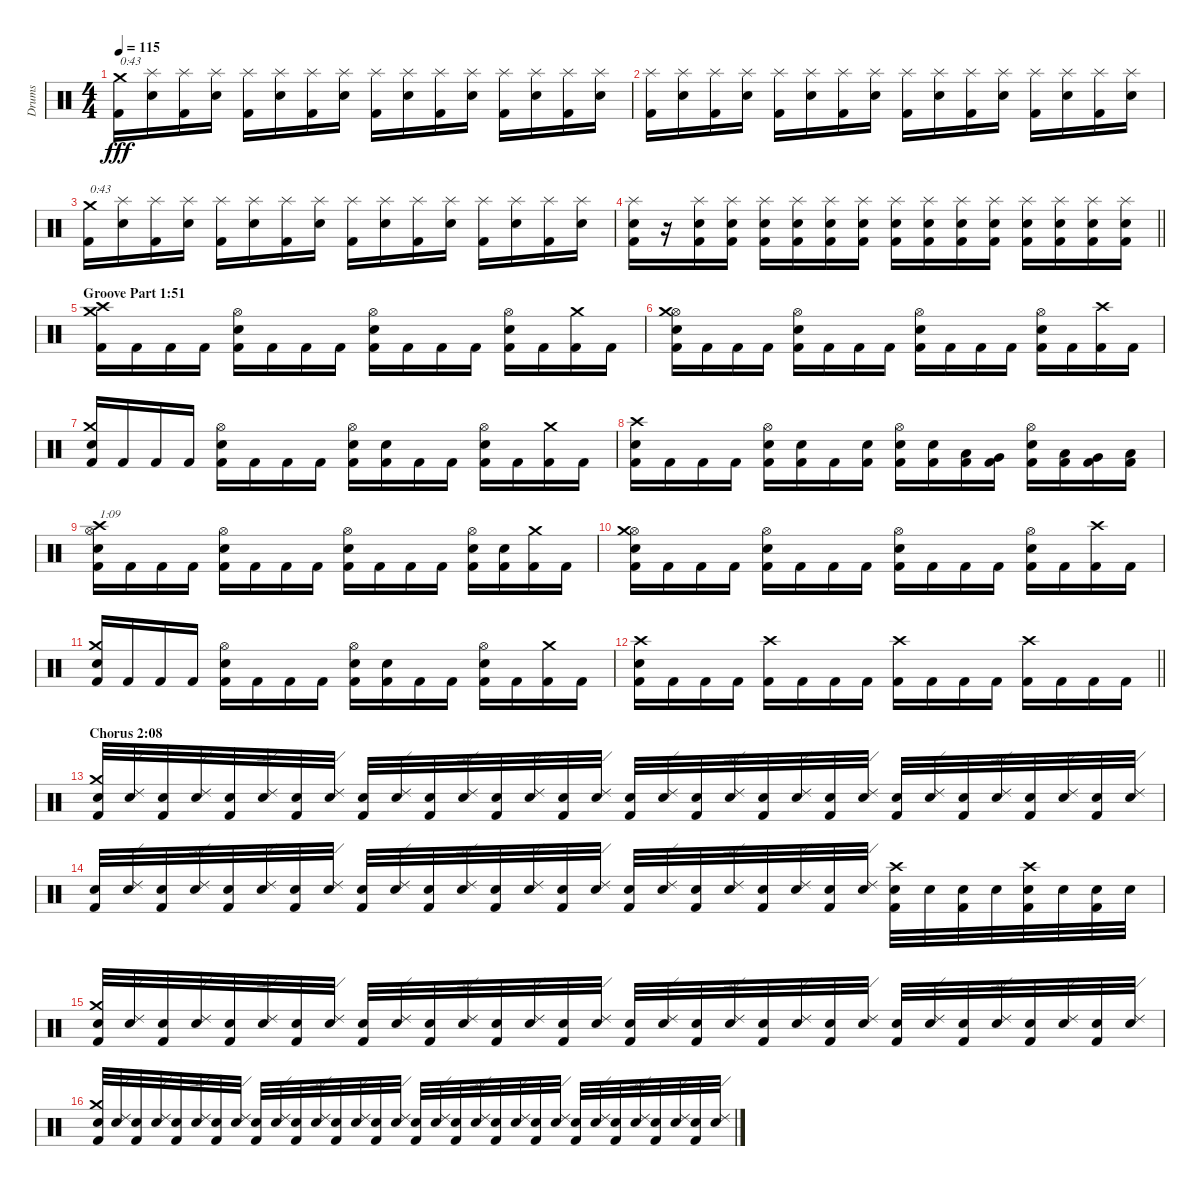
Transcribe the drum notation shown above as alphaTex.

\track ("Drums" "Drums") {instrument percussion}
\staff {score}
\articulation defaults
\ts (4 4)
\tempo 115
\clef neutral
\ks c
("Kick (hit) 2" "Crash medium (hit)").16{txt "0:43" dy fff} ("Electric Snare (hit)" "Splash (hit)").16 ("Kick (hit) 2" "Splash (hit)").16 ("Electric Snare (hit)" "Splash (hit)").16 ("Kick (hit) 2" "Splash (hit)").16 ("Electric Snare (hit)" "Splash (hit)").16 ("Kick (hit) 2" "Splash (hit)").16 ("Electric Snare (hit)" "Splash (hit)").16 ("Kick (hit) 2" "Splash (hit)").16 ("Electric Snare (hit)" "Splash (hit)").16 ("Kick (hit) 2" "Splash (hit)").16 ("Electric Snare (hit)" "Splash (hit)").16 ("Kick (hit) 2" "Splash (hit)").16 ("Electric Snare (hit)" "Splash (hit)").16 ("Kick (hit) 2" "Splash (hit)").16 ("Electric Snare (hit)" "Splash (hit)").16 |
("Kick (hit) 2" "Splash (hit)").16 ("Electric Snare (hit)" "Splash (hit)").16 ("Kick (hit) 2" "Splash (hit)").16 ("Electric Snare (hit)" "Splash (hit)").16 ("Kick (hit) 2" "Splash (hit)").16 ("Electric Snare (hit)" "Splash (hit)").16 ("Kick (hit) 2" "Splash (hit)").16 ("Electric Snare (hit)" "Splash (hit)").16 ("Kick (hit) 2" "Splash (hit)").16 ("Electric Snare (hit)" "Splash (hit)").16 ("Kick (hit) 2" "Splash (hit)").16 ("Electric Snare (hit)" "Splash (hit)").16 ("Kick (hit) 2" "Splash (hit)").16 ("Electric Snare (hit)" "Splash (hit)").16 ("Kick (hit) 2" "Splash (hit)").16 ("Electric Snare (hit)" "Splash (hit)").16 |
("Kick (hit) 2" "Crash medium (hit)").16{txt "0:43"} ("Electric Snare (hit)" "Splash (hit)").16 ("Kick (hit) 2" "Splash (hit)").16 ("Electric Snare (hit)" "Splash (hit)").16 ("Kick (hit) 2" "Splash (hit)").16 ("Electric Snare (hit)" "Splash (hit)").16 ("Kick (hit) 2" "Splash (hit)").16 ("Electric Snare (hit)" "Splash (hit)").16 ("Kick (hit) 2" "Splash (hit)").16 ("Electric Snare (hit)" "Splash (hit)").16 ("Kick (hit) 2" "Splash (hit)").16 ("Electric Snare (hit)" "Splash (hit)").16 ("Kick (hit) 2" "Splash (hit)").16 ("Electric Snare (hit)" "Splash (hit)").16 ("Kick (hit) 2" "Splash (hit)").16 ("Electric Snare (hit)" "Splash (hit)").16 |
\barLineRight lightlight
("Kick (hit) 2" "Electric Snare (hit)" "Splash (hit)").16 r.16 ("Kick (hit) 2" "Electric Snare (hit)" "Splash (hit)").16 ("Kick (hit) 2" "Electric Snare (hit)" "Splash (hit)").16 ("Kick (hit) 2" "Electric Snare (hit)" "Splash (hit)").16 ("Kick (hit) 2" "Electric Snare (hit)" "Splash (hit)").16 ("Kick (hit) 2" "Electric Snare (hit)" "Splash (hit)").16 ("Kick (hit) 2" "Electric Snare (hit)" "Splash (hit)").16 ("Kick (hit) 2" "Electric Snare (hit)" "Splash (hit)").16 ("Kick (hit) 2" "Electric Snare (hit)" "Splash (hit)").16 ("Kick (hit) 2" "Electric Snare (hit)" "Splash (hit)").16 ("Kick (hit) 2" "Electric Snare (hit)" "Splash (hit)").16 ("Kick (hit) 2" "Electric Snare (hit)" "Splash (hit)").16 ("Kick (hit) 2" "Electric Snare (hit)" "Splash (hit)").16 ("Kick (hit) 2" "Electric Snare (hit)" "Splash (hit)").16 ("Kick (hit) 2" "Electric Snare (hit)" "Splash (hit)").16 |
\section ("" "Groove Part 1:51")
("Kick (hit) 2" "Crash medium (hit)" "Crash high (hit)").16 "Kick (hit) 2".16 "Kick (hit) 2".16 "Kick (hit) 2".16 ("Kick (hit) 2" "Electric Snare (hit)" "Hi-Hat (open)").16 "Kick (hit) 2".16 "Kick (hit) 2".16 "Kick (hit) 2".16 ("Kick (hit) 2" "Electric Snare (hit)" "Hi-Hat (open)").16 "Kick (hit) 2".16 "Kick (hit) 2".16 "Kick (hit) 2".16 ("Kick (hit) 2" "Electric Snare (hit)" "Hi-Hat (open)").16 "Kick (hit) 2".16 ("Kick (hit) 2" "Crash medium (hit)").16 "Kick (hit) 2".16 |
("Kick (hit) 2" "Electric Snare (hit)" "Hi-Hat (open)" "Crash medium (hit)").16 "Kick (hit) 2".16 "Kick (hit) 2".16 "Kick (hit) 2".16 ("Kick (hit) 2" "Electric Snare (hit)" "Hi-Hat (open)").16 "Kick (hit) 2".16 "Kick (hit) 2".16 "Kick (hit) 2".16 ("Kick (hit) 2" "Electric Snare (hit)" "Hi-Hat (open)").16 "Kick (hit) 2".16 "Kick (hit) 2".16 "Kick (hit) 2".16 ("Kick (hit) 2" "Electric Snare (hit)" "Hi-Hat (open)").16 "Kick (hit) 2".16 ("Kick (hit) 2" "Crash high (hit)").16 "Kick (hit) 2".16 |
("Kick (hit) 2" "Electric Snare (hit)" "Crash medium (hit)").16 "Kick (hit) 2".16 "Kick (hit) 2".16 "Kick (hit) 2".16 ("Kick (hit) 2" "Electric Snare (hit)" "Hi-Hat (open)").16 "Kick (hit) 2".16 "Kick (hit) 2".16 "Kick (hit) 2".16 ("Kick (hit) 2" "Electric Snare (hit)" "Hi-Hat (open)").16 ("Kick (hit) 2" "Electric Snare (hit)").16 "Kick (hit) 2".16 "Kick (hit) 2".16 ("Kick (hit) 2" "Electric Snare (hit)" "Hi-Hat (open)").16 "Kick (hit) 2".16 ("Kick (hit) 2" "Crash medium (hit)").16 "Kick (hit) 2".16 |
("Kick (hit) 2" "Electric Snare (hit)" "Crash high (hit)").16 "Kick (hit) 2".16 "Kick (hit) 2".16 "Kick (hit) 2".16 ("Kick (hit) 2" "Electric Snare (hit)" "Hi-Hat (open)").16 ("Kick (hit) 2" "Electric Snare (hit)").16 "Kick (hit) 2".16 ("Kick (hit) 2" "Electric Snare (hit)").16 ("Kick (hit) 2" "Electric Snare (hit)" "Hi-Hat (open)").16 ("Kick (hit) 2" "Electric Snare (hit)").16 ("Kick (hit) 2" "Low Tom (hit)").16 ("Kick (hit) 2" "Very Low Tom (hit)").16 ("Kick (hit) 2" "Electric Snare (hit)" "Hi-Hat (open)").16 ("Kick (hit) 2" "Low Tom (hit)").16 ("Kick (hit) 2" "Very Low Tom (hit)").16 ("Kick (hit) 2" "Low Floor Tom (hit)").16 |
("Kick (hit) 2" "Electric Snare (hit)" "Hi-Hat (open)" "Crash high (hit)").16{txt "1:09"} "Kick (hit) 2".16 "Kick (hit) 2".16 "Kick (hit) 2".16 ("Kick (hit) 2" "Electric Snare (hit)" "Hi-Hat (open)").16 "Kick (hit) 2".16 "Kick (hit) 2".16 "Kick (hit) 2".16 ("Kick (hit) 2" "Electric Snare (hit)" "Hi-Hat (open)").16 "Kick (hit) 2".16 "Kick (hit) 2".16 "Kick (hit) 2".16 ("Kick (hit) 2" "Electric Snare (hit)" "Hi-Hat (open)").16 ("Kick (hit) 2" "Electric Snare (hit)").16 ("Kick (hit) 2" "Crash medium (hit)").16 "Kick (hit) 2".16 |
("Kick (hit) 2" "Electric Snare (hit)" "Hi-Hat (open)" "Crash medium (hit)").16 "Kick (hit) 2".16 "Kick (hit) 2".16 "Kick (hit) 2".16 ("Kick (hit) 2" "Electric Snare (hit)" "Hi-Hat (open)").16 "Kick (hit) 2".16 "Kick (hit) 2".16 "Kick (hit) 2".16 ("Kick (hit) 2" "Electric Snare (hit)" "Hi-Hat (open)").16 "Kick (hit) 2".16 "Kick (hit) 2".16 "Kick (hit) 2".16 ("Kick (hit) 2" "Electric Snare (hit)" "Hi-Hat (open)").16 "Kick (hit) 2".16 ("Kick (hit) 2" "Crash high (hit)").16 "Kick (hit) 2".16 |
("Kick (hit) 2" "Electric Snare (hit)" "Crash medium (hit)").16 "Kick (hit) 2".16 "Kick (hit) 2".16 "Kick (hit) 2".16 ("Kick (hit) 2" "Electric Snare (hit)" "Hi-Hat (open)").16 "Kick (hit) 2".16 "Kick (hit) 2".16 "Kick (hit) 2".16 ("Kick (hit) 2" "Electric Snare (hit)" "Hi-Hat (open)").16 ("Kick (hit) 2" "Electric Snare (hit)").16 "Kick (hit) 2".16 "Kick (hit) 2".16 ("Kick (hit) 2" "Electric Snare (hit)" "Hi-Hat (open)").16 "Kick (hit) 2".16 ("Kick (hit) 2" "Crash medium (hit)").16 "Kick (hit) 2".16 |
\barLineRight lightlight
("Kick (hit) 2" "Electric Snare (hit)" "Crash high (hit)").16 "Kick (hit) 2".16 "Kick (hit) 2".16 "Kick (hit) 2".16 ("Kick (hit) 2" "Crash high (hit)").16 "Kick (hit) 2".16 "Kick (hit) 2".16 "Kick (hit) 2".16 ("Kick (hit) 2" "Crash high (hit)").16 "Kick (hit) 2".16 "Kick (hit) 2".16 "Kick (hit) 2".16 ("Kick (hit) 2" "Crash high (hit)").16 "Kick (hit) 2".16 "Kick (hit) 2".16 "Kick (hit) 2".16 |
\section ("" "Chorus 2:08")
("Kick (hit) 2" "Electric Snare (hit)" "Crash medium (hit)").32 ("Electric Snare (hit)" "Ride (edge) 2").32 ("Kick (hit) 2" "Electric Snare (hit)").32 ("Electric Snare (hit)" "Ride (edge) 2").32 ("Kick (hit) 2" "Electric Snare (hit)").32 ("Electric Snare (hit)" "Ride (edge) 2").32 ("Kick (hit) 2" "Electric Snare (hit)").32 ("Electric Snare (hit)" "Ride (edge) 2").32 ("Kick (hit) 2" "Electric Snare (hit)").32 ("Electric Snare (hit)" "Ride (edge) 2").32 ("Kick (hit) 2" "Electric Snare (hit)").32 ("Electric Snare (hit)" "Ride (edge) 2").32 ("Kick (hit) 2" "Electric Snare (hit)").32 ("Electric Snare (hit)" "Ride (edge) 2").32 ("Kick (hit) 2" "Electric Snare (hit)").32 ("Electric Snare (hit)" "Ride (edge) 2").32 ("Kick (hit) 2" "Electric Snare (hit)").32 ("Electric Snare (hit)" "Ride (edge) 2").32 ("Kick (hit) 2" "Electric Snare (hit)").32 ("Electric Snare (hit)" "Ride (edge) 2").32 ("Kick (hit) 2" "Electric Snare (hit)").32 ("Electric Snare (hit)" "Ride (edge) 2").32 ("Kick (hit) 2" "Electric Snare (hit)").32 ("Electric Snare (hit)" "Ride (edge) 2").32 ("Kick (hit) 2" "Electric Snare (hit)").32 ("Electric Snare (hit)" "Ride (edge) 2").32 ("Kick (hit) 2" "Electric Snare (hit)").32 ("Electric Snare (hit)" "Ride (edge) 2").32 ("Kick (hit) 2" "Electric Snare (hit)").32 ("Electric Snare (hit)" "Ride (edge) 2").32 ("Kick (hit) 2" "Electric Snare (hit)").32 ("Electric Snare (hit)" "Ride (edge) 2").32 |
("Kick (hit) 2" "Electric Snare (hit)").32 ("Electric Snare (hit)" "Ride (edge) 2").32 ("Kick (hit) 2" "Electric Snare (hit)").32 ("Electric Snare (hit)" "Ride (edge) 2").32 ("Kick (hit) 2" "Electric Snare (hit)").32 ("Electric Snare (hit)" "Ride (edge) 2").32 ("Kick (hit) 2" "Electric Snare (hit)").32 ("Electric Snare (hit)" "Ride (edge) 2").32 ("Kick (hit) 2" "Electric Snare (hit)").32 ("Electric Snare (hit)" "Ride (edge) 2").32 ("Kick (hit) 2" "Electric Snare (hit)").32 ("Electric Snare (hit)" "Ride (edge) 2").32 ("Kick (hit) 2" "Electric Snare (hit)").32 ("Electric Snare (hit)" "Ride (edge) 2").32 ("Kick (hit) 2" "Electric Snare (hit)").32 ("Electric Snare (hit)" "Ride (edge) 2").32 ("Kick (hit) 2" "Electric Snare (hit)").32 ("Electric Snare (hit)" "Ride (edge) 2").32 ("Kick (hit) 2" "Electric Snare (hit)").32 ("Electric Snare (hit)" "Ride (edge) 2").32 ("Kick (hit) 2" "Electric Snare (hit)").32 ("Electric Snare (hit)" "Ride (edge) 2").32 ("Kick (hit) 2" "Electric Snare (hit)").32 ("Electric Snare (hit)" "Ride (edge) 2").32 ("Kick (hit) 2" "Electric Snare (hit)" "Crash high (hit)").32 "Electric Snare (hit)".32 ("Kick (hit) 2" "Electric Snare (hit)").32 "Electric Snare (hit)".32 ("Kick (hit) 2" "Electric Snare (hit)" "Crash high (hit)").32 "Electric Snare (hit)".32 ("Kick (hit) 2" "Electric Snare (hit)").32 "Electric Snare (hit)".32 |
("Kick (hit) 2" "Electric Snare (hit)" "Crash medium (hit)").32 ("Electric Snare (hit)" "Ride (edge) 2").32 ("Kick (hit) 2" "Electric Snare (hit)").32 ("Electric Snare (hit)" "Ride (edge) 2").32 ("Kick (hit) 2" "Electric Snare (hit)").32 ("Electric Snare (hit)" "Ride (edge) 2").32 ("Kick (hit) 2" "Electric Snare (hit)").32 ("Electric Snare (hit)" "Ride (edge) 2").32 ("Kick (hit) 2" "Electric Snare (hit)").32 ("Electric Snare (hit)" "Ride (edge) 2").32 ("Kick (hit) 2" "Electric Snare (hit)").32 ("Electric Snare (hit)" "Ride (edge) 2").32 ("Kick (hit) 2" "Electric Snare (hit)").32 ("Electric Snare (hit)" "Ride (edge) 2").32 ("Kick (hit) 2" "Electric Snare (hit)").32 ("Electric Snare (hit)" "Ride (edge) 2").32 ("Kick (hit) 2" "Electric Snare (hit)").32 ("Electric Snare (hit)" "Ride (edge) 2").32 ("Kick (hit) 2" "Electric Snare (hit)").32 ("Electric Snare (hit)" "Ride (edge) 2").32 ("Kick (hit) 2" "Electric Snare (hit)").32 ("Electric Snare (hit)" "Ride (edge) 2").32 ("Kick (hit) 2" "Electric Snare (hit)").32 ("Electric Snare (hit)" "Ride (edge) 2").32 ("Kick (hit) 2" "Electric Snare (hit)").32 ("Electric Snare (hit)" "Ride (edge) 2").32 ("Kick (hit) 2" "Electric Snare (hit)").32 ("Electric Snare (hit)" "Ride (edge) 2").32 ("Kick (hit) 2" "Electric Snare (hit)").32 ("Electric Snare (hit)" "Ride (edge) 2").32 ("Kick (hit) 2" "Electric Snare (hit)").32 ("Electric Snare (hit)" "Ride (edge) 2").32 |
("Kick (hit) 2" "Electric Snare (hit)" "Crash medium (hit)").32 ("Electric Snare (hit)" "Ride (edge) 2").32 ("Kick (hit) 2" "Electric Snare (hit)").32 ("Electric Snare (hit)" "Ride (edge) 2").32 ("Kick (hit) 2" "Electric Snare (hit)").32 ("Electric Snare (hit)" "Ride (edge) 2").32 ("Kick (hit) 2" "Electric Snare (hit)").32 ("Electric Snare (hit)" "Ride (edge) 2").32 ("Kick (hit) 2" "Electric Snare (hit)").32 ("Electric Snare (hit)" "Ride (edge) 2").32 ("Kick (hit) 2" "Electric Snare (hit)").32 ("Electric Snare (hit)" "Ride (edge) 2").32 ("Kick (hit) 2" "Electric Snare (hit)").32 ("Electric Snare (hit)" "Ride (edge) 2").32 ("Kick (hit) 2" "Electric Snare (hit)").32 ("Electric Snare (hit)" "Ride (edge) 2").32 ("Kick (hit) 2" "Electric Snare (hit)").32 ("Electric Snare (hit)" "Ride (edge) 2").32 ("Kick (hit) 2" "Electric Snare (hit)").32 ("Electric Snare (hit)" "Ride (edge) 2").32 ("Kick (hit) 2" "Electric Snare (hit)").32 ("Electric Snare (hit)" "Ride (edge) 2").32 ("Kick (hit) 2" "Electric Snare (hit)").32 ("Electric Snare (hit)" "Ride (edge) 2").32 ("Kick (hit) 2" "Electric Snare (hit)").32 ("Electric Snare (hit)" "Ride (edge) 2").32 ("Kick (hit) 2" "Electric Snare (hit)").32 ("Electric Snare (hit)" "Ride (edge) 2").32 ("Kick (hit) 2" "Electric Snare (hit)").32 ("Electric Snare (hit)" "Ride (edge) 2").32 ("Kick (hit) 2" "Electric Snare (hit)").32 ("Electric Snare (hit)" "Ride (edge) 2").32
